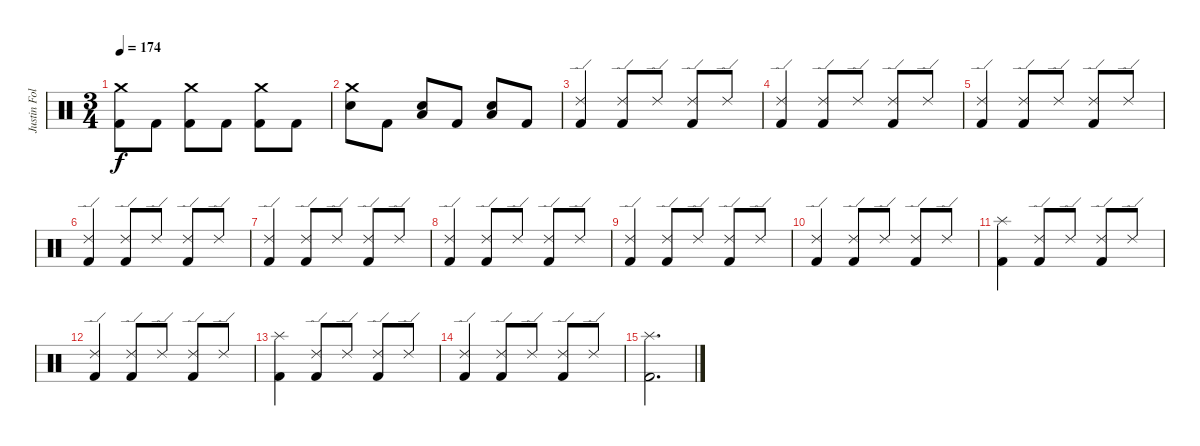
\track ("Justin Foley" "Justin Fol") {instrument percussion}
\staff {score}
\articulation defaults
\ts (3 4)
\tempo 174
\clef neutral
\ks c
("Crash medium (hit)" "Kick (hit) 2").8{dy f} "Kick (hit) 2".8 ("Crash medium (hit)" "Kick (hit) 2").8 "Kick (hit) 2".8 ("Crash medium (hit)" "Kick (hit) 2").8 "Kick (hit) 2".8 |
("Crash medium (hit)" "Electric Snare (hit)").8 "Kick (hit) 2".8 ("Electric Snare (hit)" "Low Floor Tom (hit)").8 "Kick (hit) 2".8 ("Electric Snare (hit)" "Low Floor Tom (hit)").8 "Kick (hit) 2".8 |
("Ride (edge) 2" "Kick (hit) 2").4 ("Ride (edge) 2" "Kick (hit) 2").8 "Ride (edge) 2".8 ("Ride (edge) 2" "Kick (hit) 2").8 "Ride (edge) 2".8 |
("Ride (edge) 2" "Kick (hit) 2").4 ("Ride (edge) 2" "Kick (hit) 2").8 "Ride (edge) 2".8 ("Ride (edge) 2" "Kick (hit) 2").8 "Ride (edge) 2".8 |
("Ride (edge) 2" "Kick (hit) 2").4 ("Ride (edge) 2" "Kick (hit) 2").8 "Ride (edge) 2".8 ("Ride (edge) 2" "Kick (hit) 2").8 "Ride (edge) 2".8 |
("Ride (edge) 2" "Kick (hit) 2").4 ("Ride (edge) 2" "Kick (hit) 2").8 "Ride (edge) 2".8 ("Ride (edge) 2" "Kick (hit) 2").8 "Ride (edge) 2".8 |
("Ride (edge) 2" "Kick (hit) 2").4 ("Ride (edge) 2" "Kick (hit) 2").8 "Ride (edge) 2".8 ("Ride (edge) 2" "Kick (hit) 2").8 "Ride (edge) 2".8 |
("Ride (edge) 2" "Kick (hit) 2").4 ("Ride (edge) 2" "Kick (hit) 2").8 "Ride (edge) 2".8 ("Ride (edge) 2" "Kick (hit) 2").8 "Ride (edge) 2".8 |
("Ride (edge) 2" "Kick (hit) 2").4 ("Ride (edge) 2" "Kick (hit) 2").8 "Ride (edge) 2".8 ("Ride (edge) 2" "Kick (hit) 2").8 "Ride (edge) 2".8 |
("Ride (edge) 2" "Kick (hit) 2").4 ("Ride (edge) 2" "Kick (hit) 2").8 "Ride (edge) 2".8 ("Ride (edge) 2" "Kick (hit) 2").8 "Ride (edge) 2".8 |
("Splash (hit)" "Kick (hit) 2").4 ("Ride (edge) 2" "Kick (hit) 2").8 "Ride (edge) 2".8 ("Ride (edge) 2" "Kick (hit) 2").8 "Ride (edge) 2".8 |
("Ride (edge) 2" "Kick (hit) 2").4 ("Ride (edge) 2" "Kick (hit) 2").8 "Ride (edge) 2".8 ("Ride (edge) 2" "Kick (hit) 2").8 "Ride (edge) 2".8 |
("Splash (hit)" "Kick (hit) 2").4 ("Ride (edge) 2" "Kick (hit) 2").8 "Ride (edge) 2".8 ("Ride (edge) 2" "Kick (hit) 2").8 "Ride (edge) 2".8 |
("Ride (edge) 2" "Kick (hit) 2").4 ("Ride (edge) 2" "Kick (hit) 2").8 "Ride (edge) 2".8 ("Ride (edge) 2" "Kick (hit) 2").8 "Ride (edge) 2".8 |
("Splash (hit)" "Kick (hit) 2").2{d}
